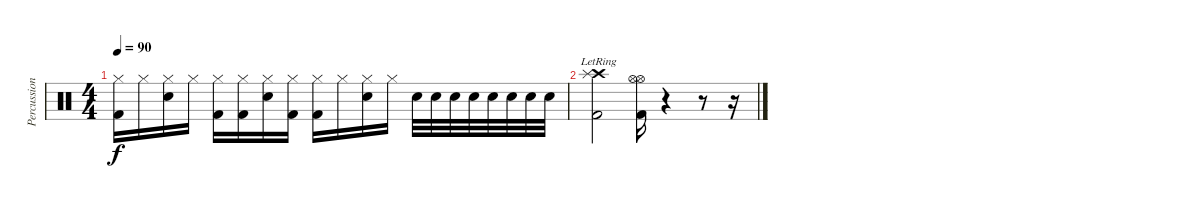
\track ("Percussion" "Percussion") {instrument percussion}
\staff {score}
\articulation defaults
\ts (4 4)
\tempo 90
\clef neutral
\ks c
("Hi-Hat (closed)" "Kick (hit) 2").16{dy f} "Hi-Hat (closed)".16 ("Hi-Hat (closed)" "Snare (hit) 2").16 "Hi-Hat (closed)".16 ("Hi-Hat (closed)" "Kick (hit) 2").16 ("Hi-Hat (closed)" "Kick (hit) 2").16 ("Hi-Hat (closed)" "Snare (hit) 2").16 ("Hi-Hat (closed)" "Kick (hit) 2").16 ("Hi-Hat (closed)" "Kick (hit) 2").16 "Hi-Hat (closed)".16 ("Hi-Hat (closed)" "Snare (hit) 2").16 "Hi-Hat (closed)".16 "Snare (hit) 2".32 "Snare (hit) 2".32 "Snare (hit) 2".32 "Snare (hit) 2".32 "Snare (hit) 2".32 "Snare (hit) 2".32 "Snare (hit) 2".32 "Snare (hit) 2".32 |
("Crash high (hit)"{lr} "Splash (hit)"{lr} "Kick (hit) 2").2 ("Hi-Hat (open)" "Hi-Hat (open)" "Kick (hit) 2").16 r.4 r.8 r.16
